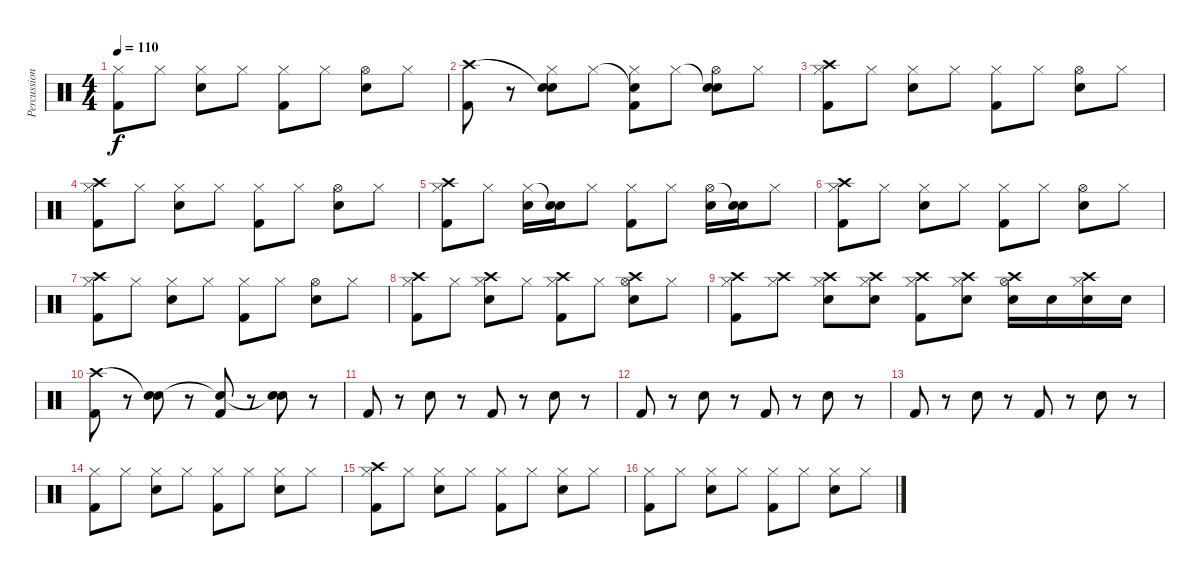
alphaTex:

\track ("Percussion" "Percussion") {instrument percussion}
\staff {score}
\articulation defaults
\ts (4 4)
\tempo 110
\clef neutral
\ks c
("Hi-Hat (closed)" "Kick (hit) 2").8{dy f} "Hi-Hat (closed)".8 ("Snare (hit) 2" "Hi-Hat (closed)").8 "Hi-Hat (closed)".8 ("Hi-Hat (closed)" "Kick (hit) 2").8 "Hi-Hat (closed)".8 ("Snare (hit) 2" "Hi-Hat (open)").8 "Hi-Hat (closed)".8 |
("Crash high (hit)" "Kick (hit) 2").8 r.8 ("Snare (hit)"{t} "Snare (hit) 2" "Hi-Hat (closed)").8 "Hi-Hat (closed)".8 ("Snare (hit)"{t} "Hi-Hat (closed)" "Kick (hit) 2").8 "Hi-Hat (closed)".8 ("Snare (hit)"{t} "Snare (hit) 2" "Hi-Hat (open)").8 "Hi-Hat (closed)".8 |
("Crash high (hit)" "Hi-Hat (closed)" "Kick (hit) 2").8 "Hi-Hat (closed)".8 ("Snare (hit) 2" "Hi-Hat (closed)").8 "Hi-Hat (closed)".8 ("Hi-Hat (closed)" "Kick (hit) 2").8 "Hi-Hat (closed)".8 ("Snare (hit) 2" "Hi-Hat (open)").8 "Hi-Hat (closed)".8 |
("Crash high (hit)" "Hi-Hat (closed)" "Kick (hit) 2").8 "Hi-Hat (closed)".8 ("Snare (hit) 2" "Hi-Hat (closed)").8 "Hi-Hat (closed)".8 ("Hi-Hat (closed)" "Kick (hit) 2").8 "Hi-Hat (closed)".8 ("Snare (hit) 2" "Hi-Hat (open)").8 "Hi-Hat (closed)".8 |
("Crash high (hit)" "Hi-Hat (closed)" "Kick (hit) 2").8 "Hi-Hat (closed)".8 ("Snare (hit) 2" "Hi-Hat (closed)").16 ("Snare (hit) 2" "Snare (hit)"{t}).16 "Hi-Hat (closed)".8 ("Hi-Hat (closed)" "Kick (hit) 2").8 "Hi-Hat (closed)".8 ("Snare (hit) 2" "Hi-Hat (open)").16 ("Snare (hit) 2" "Snare (hit)"{t}).16 "Hi-Hat (closed)".8 |
("Crash high (hit)" "Hi-Hat (closed)" "Kick (hit) 2").8 "Hi-Hat (closed)".8 ("Snare (hit) 2" "Hi-Hat (closed)").8 "Hi-Hat (closed)".8 ("Hi-Hat (closed)" "Kick (hit) 2").8 "Hi-Hat (closed)".8 ("Snare (hit) 2" "Hi-Hat (open)").8 "Hi-Hat (closed)".8 |
("Crash high (hit)" "Hi-Hat (closed)" "Kick (hit) 2").8 "Hi-Hat (closed)".8 ("Snare (hit) 2" "Hi-Hat (closed)").8 "Hi-Hat (closed)".8 ("Hi-Hat (closed)" "Kick (hit) 2").8 "Hi-Hat (closed)".8 ("Snare (hit) 2" "Hi-Hat (open)").8 "Hi-Hat (closed)".8 |
("Crash high (hit)" "Hi-Hat (closed)" "Kick (hit) 2").8 "Hi-Hat (closed)".8 ("Crash high (hit)" "Snare (hit) 2" "Hi-Hat (closed)").8 "Hi-Hat (closed)".8 ("Crash high (hit)" "Hi-Hat (closed)" "Kick (hit) 2").8 "Hi-Hat (closed)".8 ("Crash high (hit)" "Snare (hit) 2" "Hi-Hat (open)").8 "Hi-Hat (closed)".8 |
("Crash high (hit)" "Hi-Hat (closed)" "Kick (hit) 2").8 ("Crash high (hit)" "Hi-Hat (closed)").8 ("Crash high (hit)" "Snare (hit) 2" "Hi-Hat (closed)").8 ("Crash high (hit)" "Snare (hit) 2" "Hi-Hat (closed)").8 ("Crash high (hit)" "Hi-Hat (closed)" "Kick (hit) 2").8 ("Crash high (hit)" "Snare (hit) 2" "Hi-Hat (closed)").8 ("Crash high (hit)" "Snare (hit) 2" "Hi-Hat (open)").16 "Snare (hit) 2".16 ("Crash high (hit)" "Snare (hit) 2" "Hi-Hat (closed)").16 "Snare (hit) 2".16 |
("Crash high (hit)" "Kick (hit) 2").8 r.8 ("Snare (hit)"{t} "Snare (hit) 2").8 r.8 ("Snare (hit)"{t} "Kick (hit) 2").8 r.8 ("Snare (hit)"{t} "Snare (hit) 2").8 r.8 |
"Kick (hit) 2".8 r.8 "Snare (hit) 2".8 r.8 "Kick (hit) 2".8 r.8 "Snare (hit) 2".8 r.8 |
"Kick (hit) 2".8 r.8 "Snare (hit) 2".8 r.8 "Kick (hit) 2".8 r.8 "Snare (hit) 2".8 r.8 |
"Kick (hit) 2".8 r.8 "Snare (hit) 2".8 r.8 "Kick (hit) 2".8 r.8 "Snare (hit) 2".8 r.8 |
("Hi-Hat (closed)" "Kick (hit) 2").8 "Hi-Hat (closed)".8 ("Snare (hit) 2" "Hi-Hat (closed)").8 "Hi-Hat (closed)".8 ("Hi-Hat (closed)" "Kick (hit) 2").8 "Hi-Hat (closed)".8 ("Snare (hit) 2" "Hi-Hat (closed)").8 "Hi-Hat (closed)".8 |
("Crash high (hit)" "Hi-Hat (closed)" "Kick (hit) 2").8 "Hi-Hat (closed)".8 ("Snare (hit) 2" "Hi-Hat (closed)").8 "Hi-Hat (closed)".8 ("Hi-Hat (closed)" "Kick (hit) 2").8 "Hi-Hat (closed)".8 ("Snare (hit) 2" "Hi-Hat (closed)").8 "Hi-Hat (closed)".8 |
("Hi-Hat (closed)" "Kick (hit) 2").8 "Hi-Hat (closed)".8 ("Snare (hit) 2" "Hi-Hat (closed)").8 "Hi-Hat (closed)".8 ("Hi-Hat (closed)" "Kick (hit) 2").8 "Hi-Hat (closed)".8 ("Snare (hit) 2" "Hi-Hat (closed)").8 "Hi-Hat (closed)".8
